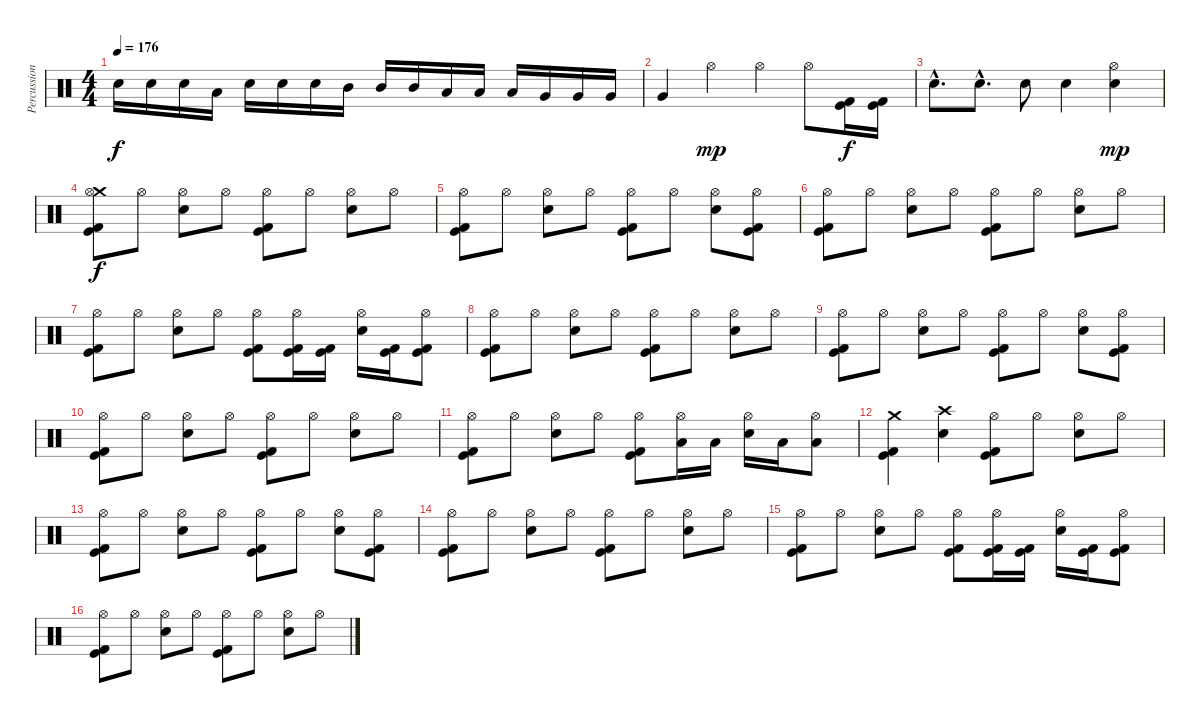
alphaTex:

\track ("Percussions" "Percussion") {instrument percussion}
\staff {score}
\articulation defaults
\ts (4 4)
\tempo 176
\clef neutral
\ks c "Electric Snare (hit)".16{dy f} "Electric Snare (hit)".16 "Electric Snare (hit)".16 "Low Tom (hit)".16 "Electric Snare (hit)".16 "Electric Snare (hit)".16 "Electric Snare (hit)".16 "Mid Tom (hit)".16 "Mid Tom (hit)".16 "Mid Tom (hit)".16 "Low Tom (hit)".16 "Low Tom (hit)".16 "Low Tom (hit)".16 "Very Low Tom (hit)".16 "Very Low Tom (hit)".16 "Very Low Tom (hit)".16
|
"Very Low Tom (hit)".4 "Hi-Hat (open)".4{dy mp} "Hi-Hat (open)".4 "Hi-Hat (open)".8 ("Kick (hit)" "Kick (hit) 2").16{dy f} ("Kick (hit)" "Kick (hit) 2").16 |
"Electric Snare (hit)"{hac}.8{d} "Electric Snare (hit)"{hac}.8{d} "Electric Snare (hit)".8 "Electric Snare (hit)".4 ("Hi-Hat (open)" "Electric Snare (hit)").4{dy mp} |
("Crash medium (hit)" "Hi-Hat (open)" "Kick (hit)" "Kick (hit) 2").8{dy f} "Hi-Hat (open)".8 ("Hi-Hat (open)" "Electric Snare (hit)").8 "Hi-Hat (open)".8 ("Hi-Hat (open)" "Kick (hit)" "Kick (hit) 2").8 "Hi-Hat (open)".8 ("Hi-Hat (open)" "Electric Snare (hit)").8 "Hi-Hat (open)".8 |
("Hi-Hat (open)" "Kick (hit)" "Kick (hit) 2").8 "Hi-Hat (open)".8 ("Hi-Hat (open)" "Electric Snare (hit)").8 "Hi-Hat (open)".8 ("Hi-Hat (open)" "Kick (hit)" "Kick (hit) 2").8 "Hi-Hat (open)".8 ("Hi-Hat (open)" "Electric Snare (hit)").8 ("Hi-Hat (open)" "Kick (hit)" "Kick (hit) 2").8 |
("Hi-Hat (open)" "Kick (hit)" "Kick (hit) 2").8 "Hi-Hat (open)".8 ("Hi-Hat (open)" "Electric Snare (hit)").8 "Hi-Hat (open)".8 ("Hi-Hat (open)" "Kick (hit)" "Kick (hit) 2").8 "Hi-Hat (open)".8 ("Hi-Hat (open)" "Electric Snare (hit)").8 "Hi-Hat (open)".8 |
("Hi-Hat (open)" "Kick (hit)" "Kick (hit) 2").8 "Hi-Hat (open)".8 ("Hi-Hat (open)" "Electric Snare (hit)").8 "Hi-Hat (open)".8 ("Hi-Hat (open)" "Kick (hit)" "Kick (hit) 2").8 ("Hi-Hat (open)" "Kick (hit)" "Kick (hit) 2").16 ("Kick (hit)" "Kick (hit) 2").16 ("Hi-Hat (open)" "Electric Snare (hit)").16 ("Kick (hit)" "Kick (hit) 2").16 ("Hi-Hat (open)" "Kick (hit)" "Kick (hit) 2").8 |
("Hi-Hat (open)" "Kick (hit)" "Kick (hit) 2").8 "Hi-Hat (open)".8 ("Hi-Hat (open)" "Electric Snare (hit)").8 "Hi-Hat (open)".8 ("Hi-Hat (open)" "Kick (hit)" "Kick (hit) 2").8 "Hi-Hat (open)".8 ("Hi-Hat (open)" "Electric Snare (hit)").8 "Hi-Hat (open)".8 |
("Hi-Hat (open)" "Kick (hit)" "Kick (hit) 2").8 "Hi-Hat (open)".8 ("Hi-Hat (open)" "Electric Snare (hit)").8 "Hi-Hat (open)".8 ("Hi-Hat (open)" "Kick (hit)" "Kick (hit) 2").8 "Hi-Hat (open)".8 ("Hi-Hat (open)" "Electric Snare (hit)").8 ("Hi-Hat (open)" "Kick (hit)" "Kick (hit) 2").8 |
("Hi-Hat (open)" "Kick (hit)" "Kick (hit) 2").8 "Hi-Hat (open)".8 ("Hi-Hat (open)" "Electric Snare (hit)").8 "Hi-Hat (open)".8 ("Hi-Hat (open)" "Kick (hit)" "Kick (hit) 2").8 "Hi-Hat (open)".8 ("Hi-Hat (open)" "Electric Snare (hit)").8 "Hi-Hat (open)".8 |
("Hi-Hat (open)" "Kick (hit)" "Kick (hit) 2").8 "Hi-Hat (open)".8 ("Hi-Hat (open)" "Electric Snare (hit)").8 "Hi-Hat (open)".8 ("Hi-Hat (open)" "Kick (hit)" "Kick (hit) 2").8 ("Hi-Hat (open)" "Low Tom (hit)").16 "Low Tom (hit)".16 ("Hi-Hat (open)" "Electric Snare (hit)").16 "Low Floor Tom (hit)".16 ("Hi-Hat (open)" "Low Floor Tom (hit)").8 |
("Crash medium (hit)" "Kick (hit)" "Kick (hit) 2").4 ("Crash high (hit)" "Electric Snare (hit)").4 ("Hi-Hat (open)" "Kick (hit)" "Kick (hit) 2").8 "Hi-Hat (open)".8 ("Hi-Hat (open)" "Electric Snare (hit)").8 "Hi-Hat (open)".8 |
("Hi-Hat (open)" "Kick (hit)" "Kick (hit) 2").8 "Hi-Hat (open)".8 ("Hi-Hat (open)" "Electric Snare (hit)").8 "Hi-Hat (open)".8 ("Hi-Hat (open)" "Kick (hit)" "Kick (hit) 2").8 "Hi-Hat (open)".8 ("Hi-Hat (open)" "Electric Snare (hit)").8 ("Hi-Hat (open)" "Kick (hit)" "Kick (hit) 2").8 |
("Hi-Hat (open)" "Kick (hit)" "Kick (hit) 2").8 "Hi-Hat (open)".8 ("Hi-Hat (open)" "Electric Snare (hit)").8 "Hi-Hat (open)".8 ("Hi-Hat (open)" "Kick (hit)" "Kick (hit) 2").8 "Hi-Hat (open)".8 ("Hi-Hat (open)" "Electric Snare (hit)").8 "Hi-Hat (open)".8 |
("Hi-Hat (open)" "Kick (hit)" "Kick (hit) 2").8 "Hi-Hat (open)".8 ("Hi-Hat (open)" "Electric Snare (hit)").8 "Hi-Hat (open)".8 ("Hi-Hat (open)" "Kick (hit)" "Kick (hit) 2").8 ("Hi-Hat (open)" "Kick (hit)" "Kick (hit) 2").16 ("Kick (hit)" "Kick (hit) 2").16 ("Hi-Hat (open)" "Electric Snare (hit)").16 ("Kick (hit)" "Kick (hit) 2").16 ("Hi-Hat (open)" "Kick (hit)" "Kick (hit) 2").8 |
("Hi-Hat (open)" "Kick (hit)" "Kick (hit) 2").8 "Hi-Hat (open)".8 ("Hi-Hat (open)" "Electric Snare (hit)").8 "Hi-Hat (open)".8 ("Hi-Hat (open)" "Kick (hit)" "Kick (hit) 2").8 "Hi-Hat (open)".8 ("Hi-Hat (open)" "Electric Snare (hit)").8 "Hi-Hat (open)".8
